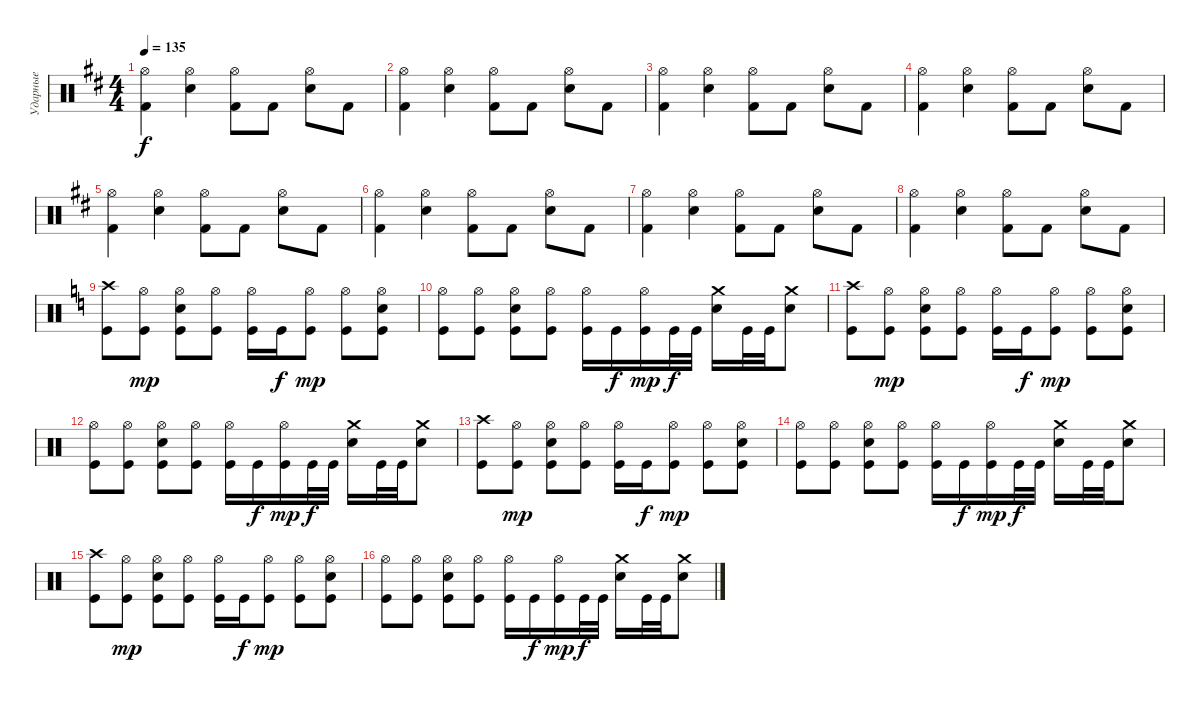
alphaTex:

\track ("Ударные" "Ударные") {instrument percussion}
\staff {score}
\articulation defaults
\ts (4 4)
\tempo 135
\clef neutral
\ks d
("Kick (hit) 2" "Hi-Hat (open)").4{dy f} ("Snare (hit) 2" "Hi-Hat (open)").4 ("Kick (hit) 2" "Hi-Hat (open)").8 "Kick (hit) 2".8 ("Snare (hit) 2" "Hi-Hat (open)").8 "Kick (hit) 2".8 |
("Kick (hit) 2" "Hi-Hat (open)").4 ("Snare (hit) 2" "Hi-Hat (open)").4 ("Kick (hit) 2" "Hi-Hat (open)").8 "Kick (hit) 2".8 ("Snare (hit) 2" "Hi-Hat (open)").8 "Kick (hit) 2".8 |
("Kick (hit) 2" "Hi-Hat (open)").4 ("Snare (hit) 2" "Hi-Hat (open)").4 ("Kick (hit) 2" "Hi-Hat (open)").8 "Kick (hit) 2".8 ("Snare (hit) 2" "Hi-Hat (open)").8 "Kick (hit) 2".8 |
("Kick (hit) 2" "Hi-Hat (open)").4 ("Snare (hit) 2" "Hi-Hat (open)").4 ("Kick (hit) 2" "Hi-Hat (open)").8 "Kick (hit) 2".8 ("Snare (hit) 2" "Hi-Hat (open)").8 "Kick (hit) 2".8 |
("Kick (hit) 2" "Hi-Hat (open)").4 ("Snare (hit) 2" "Hi-Hat (open)").4 ("Kick (hit) 2" "Hi-Hat (open)").8 "Kick (hit) 2".8 ("Snare (hit) 2" "Hi-Hat (open)").8 "Kick (hit) 2".8 |
("Kick (hit) 2" "Hi-Hat (open)").4 ("Snare (hit) 2" "Hi-Hat (open)").4 ("Kick (hit) 2" "Hi-Hat (open)").8 "Kick (hit) 2".8 ("Snare (hit) 2" "Hi-Hat (open)").8 "Kick (hit) 2".8 |
("Kick (hit) 2" "Hi-Hat (open)").4 ("Snare (hit) 2" "Hi-Hat (open)").4 ("Kick (hit) 2" "Hi-Hat (open)").8 "Kick (hit) 2".8 ("Snare (hit) 2" "Hi-Hat (open)").8 "Kick (hit) 2".8 |
("Kick (hit) 2" "Hi-Hat (open)").4 ("Snare (hit) 2" "Hi-Hat (open)").4 ("Kick (hit) 2" "Hi-Hat (open)").8 "Kick (hit) 2".8 ("Snare (hit) 2" "Hi-Hat (open)").8 "Kick (hit) 2".8 |
\ks c
("Crash high (hit)" "Kick (hit)").8 ("Hi-Hat (open)" "Kick (hit)").8{dy mp} ("Hi-Hat (open)" "Electric Snare (hit)" "Kick (hit)").8 ("Hi-Hat (open)" "Kick (hit)").8 ("Hi-Hat (open)" "Kick (hit)").16 "Kick (hit)".16{dy f} ("Hi-Hat (open)" "Kick (hit)").8{dy mp} ("Hi-Hat (open)" "Kick (hit)").8 ("Hi-Hat (open)" "Electric Snare (hit)" "Kick (hit)").8 |
("Hi-Hat (open)" "Kick (hit)").8 ("Hi-Hat (open)" "Kick (hit)").8 ("Hi-Hat (open)" "Electric Snare (hit)" "Kick (hit)").8 ("Hi-Hat (open)" "Kick (hit)").8 ("Hi-Hat (open)" "Kick (hit)").16 "Kick (hit)".16{dy f} ("Hi-Hat (open)" "Kick (hit)").16{dy mp} "Kick (hit)".32{dy f} "Kick (hit)".32 ("Crash medium (hit)" "Electric Snare (hit)").16 "Kick (hit)".32 "Kick (hit)".32 ("Crash medium (hit)" "Electric Snare (hit)").8 |
("Crash high (hit)" "Kick (hit)").8 ("Hi-Hat (open)" "Kick (hit)").8{dy mp} ("Hi-Hat (open)" "Electric Snare (hit)" "Kick (hit)").8 ("Hi-Hat (open)" "Kick (hit)").8 ("Hi-Hat (open)" "Kick (hit)").16 "Kick (hit)".16{dy f} ("Hi-Hat (open)" "Kick (hit)").8{dy mp} ("Hi-Hat (open)" "Kick (hit)").8 ("Hi-Hat (open)" "Electric Snare (hit)" "Kick (hit)").8 |
("Hi-Hat (open)" "Kick (hit)").8 ("Hi-Hat (open)" "Kick (hit)").8 ("Hi-Hat (open)" "Electric Snare (hit)" "Kick (hit)").8 ("Hi-Hat (open)" "Kick (hit)").8 ("Hi-Hat (open)" "Kick (hit)").16 "Kick (hit)".16{dy f} ("Hi-Hat (open)" "Kick (hit)").16{dy mp} "Kick (hit)".32{dy f} "Kick (hit)".32 ("Crash medium (hit)" "Electric Snare (hit)").16 "Kick (hit)".32 "Kick (hit)".32 ("Crash medium (hit)" "Electric Snare (hit)").8 |
("Crash high (hit)" "Kick (hit)").8 ("Hi-Hat (open)" "Kick (hit)").8{dy mp} ("Hi-Hat (open)" "Electric Snare (hit)" "Kick (hit)").8 ("Hi-Hat (open)" "Kick (hit)").8 ("Hi-Hat (open)" "Kick (hit)").16 "Kick (hit)".16{dy f} ("Hi-Hat (open)" "Kick (hit)").8{dy mp} ("Hi-Hat (open)" "Kick (hit)").8 ("Hi-Hat (open)" "Electric Snare (hit)" "Kick (hit)").8 |
("Hi-Hat (open)" "Kick (hit)").8 ("Hi-Hat (open)" "Kick (hit)").8 ("Hi-Hat (open)" "Electric Snare (hit)" "Kick (hit)").8 ("Hi-Hat (open)" "Kick (hit)").8 ("Hi-Hat (open)" "Kick (hit)").16 "Kick (hit)".16{dy f} ("Hi-Hat (open)" "Kick (hit)").16{dy mp} "Kick (hit)".32{dy f} "Kick (hit)".32 ("Crash medium (hit)" "Electric Snare (hit)").16 "Kick (hit)".32 "Kick (hit)".32 ("Crash medium (hit)" "Electric Snare (hit)").8 |
("Crash high (hit)" "Kick (hit)").8 ("Hi-Hat (open)" "Kick (hit)").8{dy mp} ("Hi-Hat (open)" "Electric Snare (hit)" "Kick (hit)").8 ("Hi-Hat (open)" "Kick (hit)").8 ("Hi-Hat (open)" "Kick (hit)").16 "Kick (hit)".16{dy f} ("Hi-Hat (open)" "Kick (hit)").8{dy mp} ("Hi-Hat (open)" "Kick (hit)").8 ("Hi-Hat (open)" "Electric Snare (hit)" "Kick (hit)").8 |
("Hi-Hat (open)" "Kick (hit)").8 ("Hi-Hat (open)" "Kick (hit)").8 ("Hi-Hat (open)" "Electric Snare (hit)" "Kick (hit)").8 ("Hi-Hat (open)" "Kick (hit)").8 ("Hi-Hat (open)" "Kick (hit)").16 "Kick (hit)".16{dy f} ("Hi-Hat (open)" "Kick (hit)").16{dy mp} "Kick (hit)".32{dy f} "Kick (hit)".32 ("Crash medium (hit)" "Electric Snare (hit)").16 "Kick (hit)".32 "Kick (hit)".32 ("Crash medium (hit)" "Electric Snare (hit)").8
